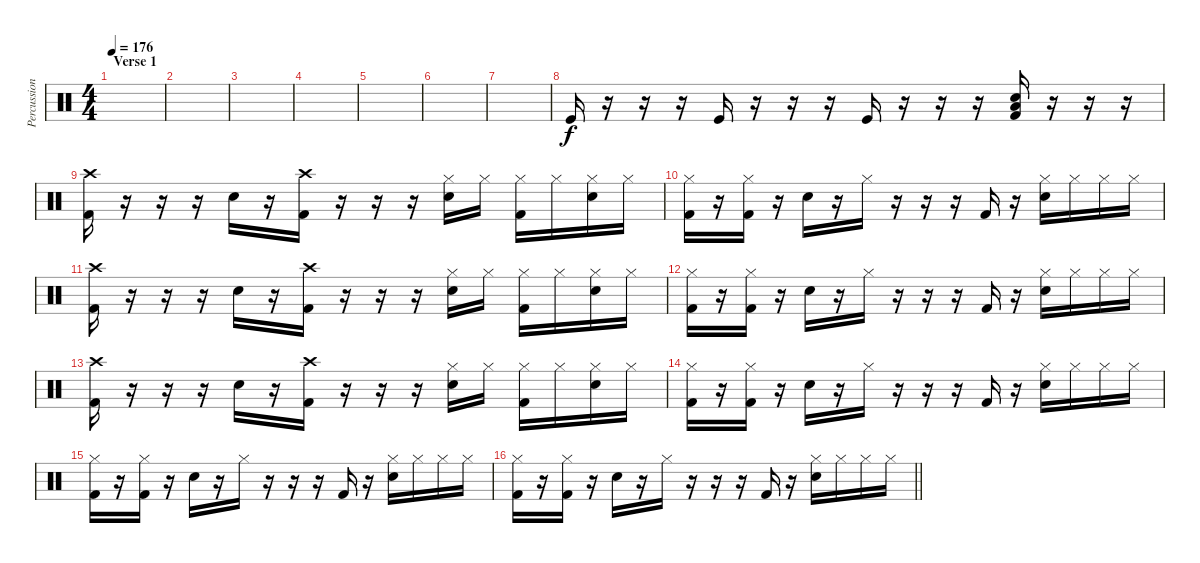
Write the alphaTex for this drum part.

\track ("Percussion" "Percussion") {instrument percussion}
\staff {score}
\articulation defaults
\ts (4 4)
\section ("" "Verse 1")
\tempo 176
\clef neutral
\ks c
|
|
|
|
|
|
|
"Kick (hit)".16 r.16 r.16 r.16 "Kick (hit)".16 r.16 r.16 r.16 "Kick (hit)".16 r.16 r.16 r.16 ("Kick (hit) 2" "Electric Snare (hit)" "Low Floor Tom (hit)").16 r.16 r.16 r.16 |
("Kick (hit) 2" "Crash high (hit)").16 r.16 r.16 r.16 "Electric Snare (hit)".16 r.16 ("Kick (hit) 2" "Crash high (hit)").16 r.16 r.16 r.16 ("Electric Snare (hit)" "Hi-Hat (closed)").16 "Hi-Hat (closed)".16 ("Kick (hit) 2" "Hi-Hat (closed)").16 "Hi-Hat (closed)".16 ("Electric Snare (hit)" "Hi-Hat (closed)").16 "Hi-Hat (closed)".16 |
("Kick (hit) 2" "Hi-Hat (closed)").16 r.16 ("Kick (hit) 2" "Hi-Hat (closed)").16 r.16 "Electric Snare (hit)".16 r.16 "Hi-Hat (closed)".16 r.16 r.16 r.16 "Kick (hit) 2".16 r.16 ("Electric Snare (hit)" "Hi-Hat (closed)").16 "Hi-Hat (closed)".16 "Hi-Hat (closed)".16 "Hi-Hat (closed)".16 |
("Kick (hit) 2" "Crash high (hit)").16 r.16 r.16 r.16 "Electric Snare (hit)".16 r.16 ("Kick (hit) 2" "Crash high (hit)").16 r.16 r.16 r.16 ("Electric Snare (hit)" "Hi-Hat (closed)").16 "Hi-Hat (closed)".16 ("Kick (hit) 2" "Hi-Hat (closed)").16 "Hi-Hat (closed)".16 ("Electric Snare (hit)" "Hi-Hat (closed)").16 "Hi-Hat (closed)".16 |
("Kick (hit) 2" "Hi-Hat (closed)").16 r.16 ("Kick (hit) 2" "Hi-Hat (closed)").16 r.16 "Electric Snare (hit)".16 r.16 "Hi-Hat (closed)".16 r.16 r.16 r.16 "Kick (hit) 2".16 r.16 ("Electric Snare (hit)" "Hi-Hat (closed)").16 "Hi-Hat (closed)".16 "Hi-Hat (closed)".16 "Hi-Hat (closed)".16 |
("Kick (hit) 2" "Crash high (hit)").16 r.16 r.16 r.16 "Electric Snare (hit)".16 r.16 ("Kick (hit) 2" "Crash high (hit)").16 r.16 r.16 r.16 ("Electric Snare (hit)" "Hi-Hat (closed)").16 "Hi-Hat (closed)".16 ("Kick (hit) 2" "Hi-Hat (closed)").16 "Hi-Hat (closed)".16 ("Electric Snare (hit)" "Hi-Hat (closed)").16 "Hi-Hat (closed)".16 |
("Kick (hit) 2" "Hi-Hat (closed)").16 r.16 ("Kick (hit) 2" "Hi-Hat (closed)").16 r.16 "Electric Snare (hit)".16 r.16 "Hi-Hat (closed)".16 r.16 r.16 r.16 "Kick (hit) 2".16 r.16 ("Electric Snare (hit)" "Hi-Hat (closed)").16 "Hi-Hat (closed)".16 "Hi-Hat (closed)".16 "Hi-Hat (closed)".16 |
("Kick (hit) 2" "Hi-Hat (closed)").16 r.16 ("Kick (hit) 2" "Hi-Hat (closed)").16 r.16 "Electric Snare (hit)".16 r.16 "Hi-Hat (closed)".16 r.16 r.16 r.16 "Kick (hit) 2".16 r.16 ("Electric Snare (hit)" "Hi-Hat (closed)").16 "Hi-Hat (closed)".16 "Hi-Hat (closed)".16 "Hi-Hat (closed)".16 |
\barLineRight lightlight
("Kick (hit) 2" "Hi-Hat (closed)").16 r.16 ("Kick (hit) 2" "Hi-Hat (closed)").16 r.16 "Electric Snare (hit)".16 r.16 "Hi-Hat (closed)".16 r.16 r.16 r.16 "Kick (hit) 2".16 r.16 ("Electric Snare (hit)" "Hi-Hat (closed)").16 "Hi-Hat (closed)".16 "Hi-Hat (closed)".16 "Hi-Hat (closed)".16
